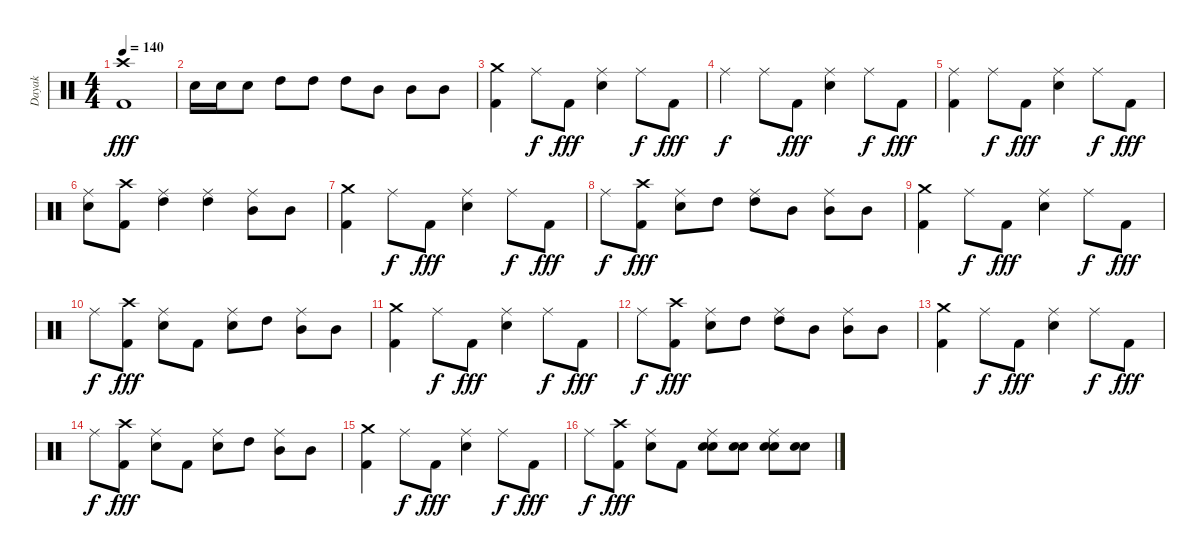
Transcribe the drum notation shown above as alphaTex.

\track ("Dayak" "Dayak") {instrument percussion}
\staff {score}
\articulation defaults
\ts (4 4)
\tempo 140
\clef neutral
\ks c
("Crash high (hit)" "Kick (hit) 2").1{dy fff} |
"Snare (hit) 2".16 "Snare (hit) 2".16 "Snare (hit) 2".8 "High Tom (hit)".8 "High Tom (hit)".8 "High Tom (hit)".8 "Mid Tom (hit)".8 "Mid Tom (hit)".8 "Mid Tom (hit)".8 |
("Crash medium (hit)" "Kick (hit) 2").4 "Ride (middle)".8{dy f} "Kick (hit) 2".8{dy fff} ("Ride (middle)" "Snare (hit) 2").4 "Ride (middle)".8{dy f} "Kick (hit) 2".8{dy fff} |
"Ride (middle)".4{dy f} "Ride (middle)".8 "Kick (hit) 2".8{dy fff} ("Ride (middle)" "Snare (hit) 2").4 "Ride (middle)".8{dy f} "Kick (hit) 2".8{dy fff} |
("Ride (middle)" "Kick (hit) 2").4 "Ride (middle)".8{dy f} "Kick (hit) 2".8{dy fff} ("Ride (middle)" "Snare (hit) 2").4 "Ride (middle)".8{dy f} "Kick (hit) 2".8{dy fff} |
("Ride (middle)" "Snare (hit) 2").8 ("Crash high (hit)" "Kick (hit) 2").8 ("Ride (middle)" "High Tom (hit)").4 ("Ride (middle)" "High Tom (hit)").4 ("Ride (middle)" "Mid Tom (hit)").8 "Mid Tom (hit)".8 |
("Crash medium (hit)" "Kick (hit) 2").4 "Ride (middle)".8{dy f} "Kick (hit) 2".8{dy fff} ("Ride (middle)" "Snare (hit) 2").4 "Ride (middle)".8{dy f} "Kick (hit) 2".8{dy fff} |
"Ride (middle)".8{dy f} ("Crash high (hit)" "Kick (hit) 2").8{dy fff} ("Ride (middle)" "Snare (hit) 2").8 "High Tom (hit)".8 ("Ride (middle)" "High Tom (hit)").8 "Mid Tom (hit)".8 ("Ride (middle)" "Mid Tom (hit)").8 "Mid Tom (hit)".8 |
("Crash medium (hit)" "Kick (hit) 2").4 "Ride (middle)".8{dy f} "Kick (hit) 2".8{dy fff} ("Ride (middle)" "Snare (hit) 2").4 "Ride (middle)".8{dy f} "Kick (hit) 2".8{dy fff} |
"Ride (middle)".8{dy f} ("Crash high (hit)" "Kick (hit) 2").8{dy fff} ("Ride (middle)" "Snare (hit) 2").8 "Kick (hit) 2".8 ("Ride (middle)" "Snare (hit) 2").8 "High Tom (hit)".8 ("Ride (middle)" "Mid Tom (hit)").8 "Mid Tom (hit)".8 |
("Crash medium (hit)" "Kick (hit) 2").4 "Ride (middle)".8{dy f} "Kick (hit) 2".8{dy fff} ("Ride (middle)" "Snare (hit) 2").4 "Ride (middle)".8{dy f} "Kick (hit) 2".8{dy fff} |
"Ride (middle)".8{dy f} ("Crash high (hit)" "Kick (hit) 2").8{dy fff} ("Ride (middle)" "Snare (hit) 2").8 "High Tom (hit)".8 ("Ride (middle)" "High Tom (hit)").8 "Mid Tom (hit)".8 ("Ride (middle)" "Mid Tom (hit)").8 "Mid Tom (hit)".8 |
("Crash medium (hit)" "Kick (hit) 2").4 "Ride (middle)".8{dy f} "Kick (hit) 2".8{dy fff} ("Ride (middle)" "Snare (hit) 2").4 "Ride (middle)".8{dy f} "Kick (hit) 2".8{dy fff} |
\section ("" "")
"Ride (middle)".8{dy f} ("Crash high (hit)" "Kick (hit) 2").8{dy fff} ("Ride (middle)" "Snare (hit) 2").8 "Kick (hit) 2".8 ("Ride (middle)" "Snare (hit) 2").8 "High Tom (hit)".8 ("Ride (middle)" "Mid Tom (hit)").8 "Mid Tom (hit)".8 |
("Crash medium (hit)" "Kick (hit) 2").4 "Ride (middle)".8{dy f} "Kick (hit) 2".8{dy fff} ("Ride (middle)" "Snare (hit) 2").4 "Ride (middle)".8{dy f} "Kick (hit) 2".8{dy fff} |
"Ride (middle)".8{dy f} ("Crash high (hit)" "Kick (hit) 2").8{dy fff} ("Ride (middle)" "Snare (hit) 2").8 "Kick (hit) 2".8 ("Ride (middle)" "Snare (hit) 2" "Snare (hit) 2").8 ("Snare (hit) 2" "Snare (hit) 2").8 ("Ride (middle)" "Snare (hit) 2" "Snare (hit) 2").8 ("Snare (hit) 2" "Snare (hit) 2").8
